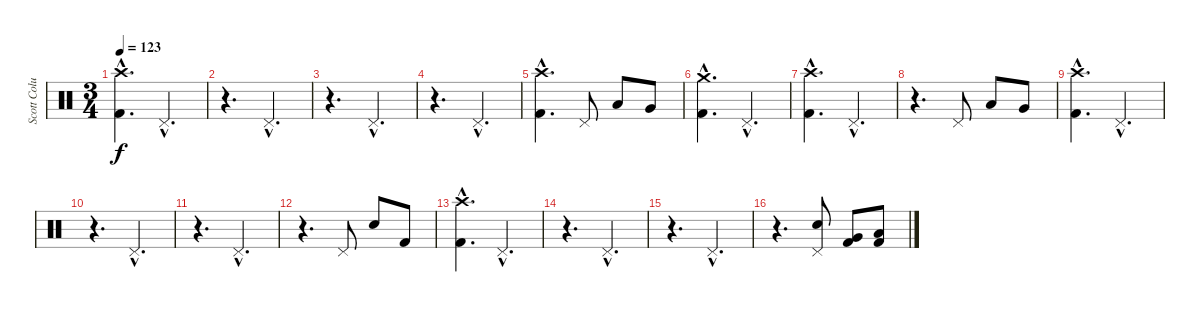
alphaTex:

\track ("Scott Columbus" "Scott Colu") {instrument percussion}
\staff {score}
\articulation defaults
\ts (3 4)
\tempo 123
\clef neutral
\ks c
("Crash high (hit)"{hac} "Kick (hit) 2"{hac}).4{d dy f} "Pedal Hi-Hat (hit)"{hac}.4{d} |
r.4{d} "Pedal Hi-Hat (hit)"{hac}.4{d} |
r.4{d} "Pedal Hi-Hat (hit)"{hac}.4{d} |
r.4{d} "Pedal Hi-Hat (hit)"{hac}.4{d} |
("Crash high (hit)"{hac} "Kick (hit) 2"{hac}).4{d} "Pedal Hi-Hat (hit)".8 "Low Tom (hit)".8 "Very Low Tom (hit)".8 |
("Crash medium (hit)"{hac} "Kick (hit) 2"{hac}).4{d} "Pedal Hi-Hat (hit)"{hac}.4{d} |
("Crash high (hit)"{hac} "Kick (hit) 2"{hac}).4{d} "Pedal Hi-Hat (hit)"{hac}.4{d} |
r.4{d} "Pedal Hi-Hat (hit)".8 "Low Tom (hit)".8 "Very Low Tom (hit)".8 |
("Crash high (hit)"{hac} "Kick (hit) 2"{hac}).4{d} "Pedal Hi-Hat (hit)"{hac}.4{d} |
r.4{d} "Pedal Hi-Hat (hit)"{hac}.4{d} |
r.4{d} "Pedal Hi-Hat (hit)"{hac}.4{d} |
r.4{d} "Pedal Hi-Hat (hit)".8 "Snare (hit) 2".8 "Kick (hit) 2".8 |
("Crash high (hit)"{hac} "Kick (hit) 2"{hac}).4{d} "Pedal Hi-Hat (hit)"{hac}.4{d} |
r.4{d} "Pedal Hi-Hat (hit)"{hac}.4{d} |
r.4{d} "Pedal Hi-Hat (hit)"{hac}.4{d} |
r.4{d} ("Pedal Hi-Hat (hit)" "Snare (hit) 2").8 ("Very Low Tom (hit)" "Kick (hit) 2").8 ("Low Floor Tom (hit)" "Kick (hit) 2").8
